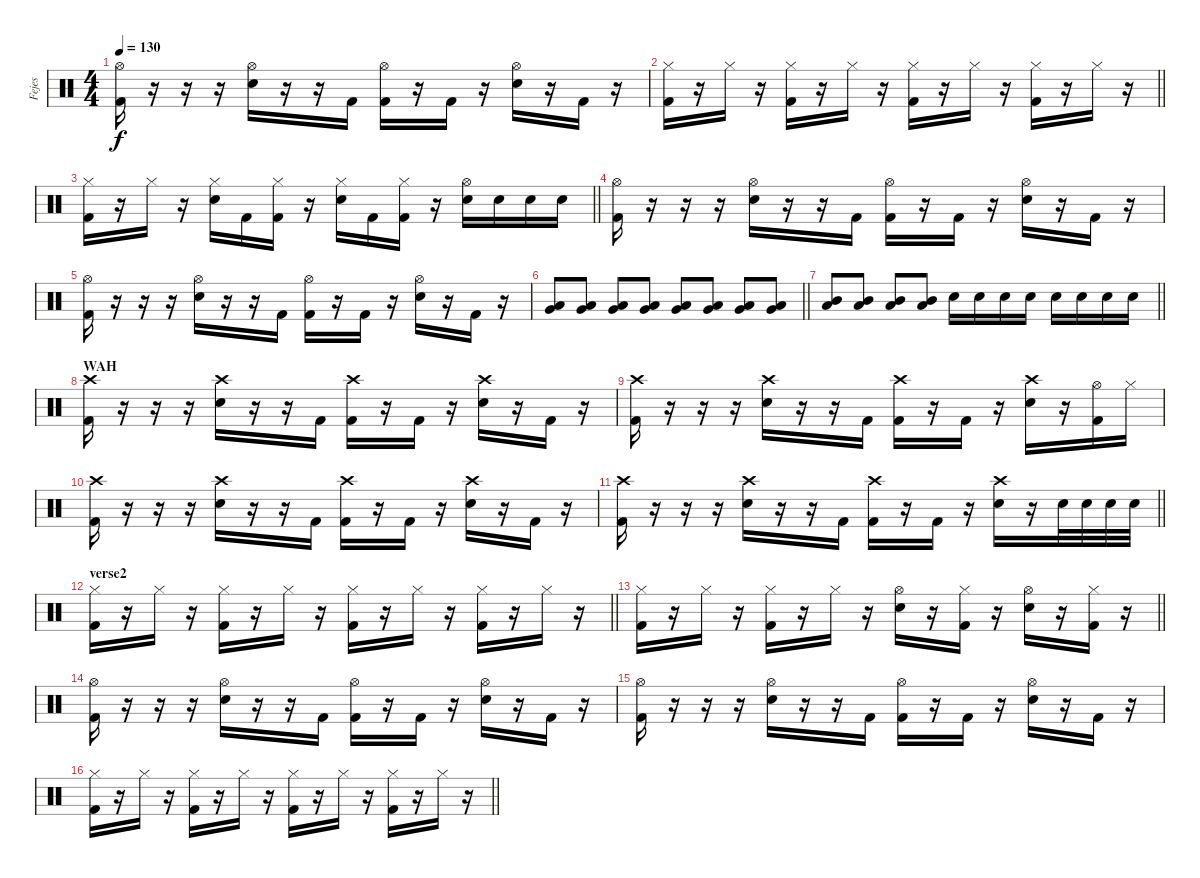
\track ("Fejes" "Fejes") {instrument percussion}
\staff {score}
\articulation defaults
\ts (4 4)
\tempo 130
\clef neutral
\ks c
("Hi-Hat (open)" "Kick (hit) 2").16{dy f} r.16 r.16 r.16 ("Hi-Hat (open)" "Snare (hit) 2").16 r.16 r.16 "Kick (hit) 2".16 ("Hi-Hat (open)" "Kick (hit) 2").16 r.16 "Kick (hit) 2".16 r.16 ("Hi-Hat (open)" "Snare (hit) 2").16 r.16 "Kick (hit) 2".16 r.16 |
\barLineRight lightlight
("Hi-Hat (closed)" "Kick (hit) 2").16 r.16 "Hi-Hat (closed)".16 r.16 ("Hi-Hat (closed)" "Kick (hit) 2").16 r.16 "Hi-Hat (closed)".16 r.16 ("Hi-Hat (closed)" "Kick (hit) 2").16 r.16 "Hi-Hat (closed)".16 r.16 ("Hi-Hat (closed)" "Kick (hit) 2").16 r.16 "Hi-Hat (closed)".16 r.16 |
\barLineRight lightlight
("Hi-Hat (closed)" "Kick (hit) 2").16 r.16 "Hi-Hat (closed)".16 r.16 ("Hi-Hat (closed)" "Snare (hit) 2").16 "Kick (hit) 2".16 ("Hi-Hat (closed)" "Kick (hit) 2").16 r.16 ("Hi-Hat (closed)" "Snare (hit) 2").16 "Kick (hit) 2".16 ("Hi-Hat (closed)" "Kick (hit) 2").16 r.16 ("Hi-Hat (open)" "Snare (hit) 2").16 "Snare (hit) 2".16 "Snare (hit) 2".16 "Snare (hit) 2".16 |
("Hi-Hat (open)" "Kick (hit) 2").16 r.16 r.16 r.16 ("Hi-Hat (open)" "Snare (hit) 2").16 r.16 r.16 "Kick (hit) 2".16 ("Hi-Hat (open)" "Kick (hit) 2").16 r.16 "Kick (hit) 2".16 r.16 ("Hi-Hat (open)" "Snare (hit) 2").16 r.16 "Kick (hit) 2".16 r.16 |
("Hi-Hat (open)" "Kick (hit) 2").16 r.16 r.16 r.16 ("Hi-Hat (open)" "Snare (hit) 2").16 r.16 r.16 "Kick (hit) 2".16 ("Hi-Hat (open)" "Kick (hit) 2").16 r.16 "Kick (hit) 2".16 r.16 ("Hi-Hat (open)" "Snare (hit) 2").16 r.16 "Kick (hit) 2".16 r.16 |
\barLineRight lightlight
("Low Tom (hit)" "Very Low Tom (hit)").8 ("Low Tom (hit)" "Very Low Tom (hit)").8 ("Low Tom (hit)" "Very Low Tom (hit)").8 ("Low Tom (hit)" "Very Low Tom (hit)").8 ("Low Tom (hit)" "Very Low Tom (hit)").8 ("Low Tom (hit)" "Very Low Tom (hit)").8 ("Low Tom (hit)" "Very Low Tom (hit)").8 ("Low Tom (hit)" "Very Low Tom (hit)").8 |
\barLineRight lightlight
("Mid Tom (hit)" "Low Tom (hit)").8 ("Mid Tom (hit)" "Low Tom (hit)").8 ("Mid Tom (hit)" "Low Tom (hit)").8 ("Mid Tom (hit)" "Low Tom (hit)").8 "Snare (hit) 2".16 "Snare (hit) 2".16 "Snare (hit) 2".16 "Snare (hit) 2".16 "Snare (hit) 2".16 "Snare (hit) 2".16 "Snare (hit) 2".16 "Snare (hit) 2".16 |
\section ("" "WAH")
("Crash high (hit)" "Kick (hit) 2").16 r.16 r.16 r.16 ("Crash high (hit)" "Snare (hit) 2").16 r.16 r.16 "Kick (hit) 2".16 ("Crash high (hit)" "Kick (hit) 2").16 r.16 "Kick (hit) 2".16 r.16 ("Crash high (hit)" "Snare (hit) 2").16 r.16 "Kick (hit) 2".16 r.16 |
("Crash high (hit)" "Kick (hit) 2").16 r.16 r.16 r.16 ("Crash high (hit)" "Snare (hit) 2").16 r.16 r.16 "Kick (hit) 2".16 ("Crash high (hit)" "Kick (hit) 2").16 r.16 "Kick (hit) 2".16 r.16 ("Crash high (hit)" "Snare (hit) 2").16 r.16 ("Hi-Hat (open)" "Kick (hit) 2").16 "Hi-Hat (closed)".16 |
("Crash high (hit)" "Kick (hit) 2").16 r.16 r.16 r.16 ("Crash high (hit)" "Snare (hit) 2").16 r.16 r.16 "Kick (hit) 2".16 ("Crash high (hit)" "Kick (hit) 2").16 r.16 "Kick (hit) 2".16 r.16 ("Crash high (hit)" "Snare (hit) 2").16 r.16 "Kick (hit) 2".16 r.16 |
\barLineRight lightlight
("Crash high (hit)" "Kick (hit) 2").16 r.16 r.16 r.16 ("Crash high (hit)" "Snare (hit) 2").16 r.16 r.16 "Kick (hit) 2".16 ("Crash high (hit)" "Kick (hit) 2").16 r.16 "Kick (hit) 2".16 r.16 ("Crash high (hit)" "Snare (hit) 2").16 r.16 "Snare (hit) 2".32 "Snare (hit) 2".32 "Snare (hit) 2".32 "Snare (hit) 2".32 |
\section ("" "verse2")
\barLineRight lightlight
("Hi-Hat (closed)" "Kick (hit) 2").16 r.16 "Hi-Hat (closed)".16 r.16 ("Hi-Hat (closed)" "Kick (hit) 2").16 r.16 "Hi-Hat (closed)".16 r.16 ("Hi-Hat (closed)" "Kick (hit) 2").16 r.16 "Hi-Hat (closed)".16 r.16 ("Hi-Hat (closed)" "Kick (hit) 2").16 r.16 "Hi-Hat (closed)".16 r.16 |
\barLineRight lightlight
("Hi-Hat (closed)" "Kick (hit) 2").16 r.16 "Hi-Hat (closed)".16 r.16 ("Hi-Hat (closed)" "Kick (hit) 2").16 r.16 "Hi-Hat (closed)".16 r.16 ("Hi-Hat (open)" "Snare (hit) 2").16 r.16 ("Hi-Hat (closed)" "Kick (hit) 2").16 r.16 ("Hi-Hat (open)" "Snare (hit) 2").16 r.16 ("Hi-Hat (closed)" "Kick (hit) 2").16 r.16 |
("Hi-Hat (open)" "Kick (hit) 2").16 r.16 r.16 r.16 ("Hi-Hat (open)" "Snare (hit) 2").16 r.16 r.16 "Kick (hit) 2".16 ("Hi-Hat (open)" "Kick (hit) 2").16 r.16 "Kick (hit) 2".16 r.16 ("Hi-Hat (open)" "Snare (hit) 2").16 r.16 "Kick (hit) 2".16 r.16 |
("Hi-Hat (open)" "Kick (hit) 2").16 r.16 r.16 r.16 ("Hi-Hat (open)" "Snare (hit) 2").16 r.16 r.16 "Kick (hit) 2".16 ("Hi-Hat (open)" "Kick (hit) 2").16 r.16 "Kick (hit) 2".16 r.16 ("Hi-Hat (open)" "Snare (hit) 2").16 r.16 "Kick (hit) 2".16 r.16 |
\barLineRight lightlight
("Hi-Hat (closed)" "Kick (hit) 2").16 r.16 "Hi-Hat (closed)".16 r.16 ("Hi-Hat (closed)" "Kick (hit) 2").16 r.16 "Hi-Hat (closed)".16 r.16 ("Hi-Hat (closed)" "Kick (hit) 2").16 r.16 "Hi-Hat (closed)".16 r.16 ("Hi-Hat (closed)" "Kick (hit) 2").16 r.16 "Hi-Hat (closed)".16 r.16
